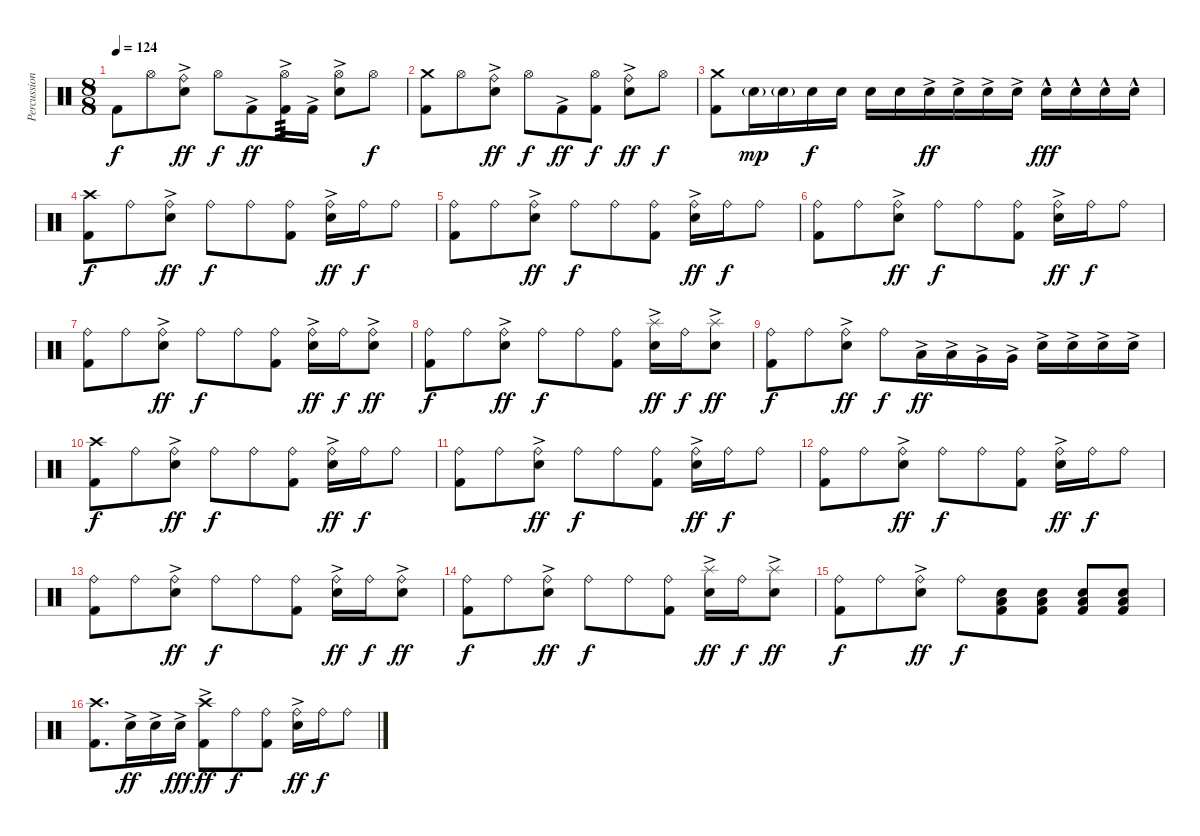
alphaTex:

\track ("Percussion" "Percussion") {instrument percussion}
\staff {score}
\articulation defaults
\ts (8 8)
\tempo 124
\clef neutral
\ks c "Kick (hit) 2".8{dy f} "Hi-Hat (open)".8
("Ride (bell)" "Electric Snare (hit)"{ac}).8{dy ff} "Hi-Hat (open)".8{dy f} "Kick (hit) 2"{ac}.8{dy ff} ("Hi-Hat (open)" "Kick (hit) 2"{ac}).16{tp 3} "Kick (hit) 2"{ac}.16 ("Hi-Hat (open)" "Electric Snare (hit)"{ac}).8 "Hi-Hat (open)".8{dy f} |
("Crash medium (hit)" "Kick (hit) 2").8 "Hi-Hat (open)".8 ("Ride (bell)" "Electric Snare (hit)"{ac}).8{dy ff} "Hi-Hat (open)".8{dy f} "Kick (hit) 2"{ac}.8{dy ff} ("Hi-Hat (open)" "Kick (hit) 2").8{dy f} ("Ride (bell)" "Electric Snare (hit)"{ac}).8{dy ff} "Hi-Hat (open)".8{dy f} |
("Crash medium (hit)" "Kick (hit) 2").8 "Electric Snare (hit)"{g}.16{dy mp} "Electric Snare (hit)"{g}.16 "Electric Snare (hit)".16{dy f} "Electric Snare (hit)".16 "Electric Snare (hit)".16 "Electric Snare (hit)".16 "Electric Snare (hit)"{ac}.16{dy ff} "Electric Snare (hit)"{ac}.16 "Electric Snare (hit)"{ac}.16 "Electric Snare (hit)"{ac}.16 "Electric Snare (hit)"{hac}.16{dy fff} "Electric Snare (hit)"{hac}.16 "Electric Snare (hit)"{hac}.16 "Electric Snare (hit)"{hac}.16 |
("Crash high (hit)" "Kick (hit) 2").8{dy f} "Ride (bell)".8 ("Ride (bell)" "Electric Snare (hit)"{ac}).8{dy ff} "Ride (bell)".8{dy f} "Ride (bell)".8 ("Ride (bell)" "Kick (hit) 2").8 ("Ride (bell)" "Electric Snare (hit)"{ac}).16{dy ff} "Ride (bell)".16{dy f} "Ride (bell)".8 |
("Ride (bell)" "Kick (hit) 2").8 "Ride (bell)".8 ("Ride (bell)" "Electric Snare (hit)"{ac}).8{dy ff} "Ride (bell)".8{dy f} "Ride (bell)".8 ("Ride (bell)" "Kick (hit) 2").8 ("Ride (bell)" "Electric Snare (hit)"{ac}).16{dy ff} "Ride (bell)".16{dy f} "Ride (bell)".8 |
("Ride (bell)" "Kick (hit) 2").8 "Ride (bell)".8 ("Ride (bell)" "Electric Snare (hit)"{ac}).8{dy ff} "Ride (bell)".8{dy f} "Ride (bell)".8 ("Ride (bell)" "Kick (hit) 2").8 ("Ride (bell)" "Electric Snare (hit)"{ac}).16{dy ff} "Ride (bell)".16{dy f} "Ride (bell)".8 |
("Ride (bell)" "Kick (hit) 2").8 "Ride (bell)".8 ("Ride (bell)" "Electric Snare (hit)"{ac}).8{dy ff} "Ride (bell)".8{dy f} "Ride (bell)".8 ("Ride (bell)" "Kick (hit) 2").8 ("Ride (bell)" "Electric Snare (hit)"{ac}).16{dy ff} "Ride (bell)".16{dy f} ("Ride (bell)" "Electric Snare (hit)"{ac}).8{dy ff} |
("Ride (bell)" "Kick (hit) 2").8{dy f} "Ride (bell)".8 ("Ride (bell)" "Electric Snare (hit)"{ac}).8{dy ff} "Ride (bell)".8{dy f} "Ride (bell)".8 ("Ride (bell)" "Kick (hit) 2").8 ("Splash (hit)" "Electric Snare (hit)"{ac}).16{dy ff} "Ride (bell)".16{dy f} ("Splash (hit)" "Electric Snare (hit)"{ac}).8{dy ff} |
("Ride (bell)" "Kick (hit) 2").8{dy f} "Ride (bell)".8 ("Ride (bell)" "Electric Snare (hit)"{ac}).8{dy ff} "Ride (bell)".8{dy f} "Low Tom (hit)"{ac}.16{dy ff} "Low Tom (hit)"{ac}.16 "Very Low Tom (hit)"{ac}.16 "Very Low Tom (hit)"{ac}.16 "Electric Snare (hit)"{ac}.16 "Electric Snare (hit)"{ac}.16 "Electric Snare (hit)"{ac}.16 "Electric Snare (hit)"{ac}.16 |
("Crash high (hit)" "Kick (hit) 2").8{dy f} "Ride (bell)".8 ("Ride (bell)" "Electric Snare (hit)"{ac}).8{dy ff} "Ride (bell)".8{dy f} "Ride (bell)".8 ("Ride (bell)" "Kick (hit) 2").8 ("Ride (bell)" "Electric Snare (hit)"{ac}).16{dy ff} "Ride (bell)".16{dy f} "Ride (bell)".8 |
("Ride (bell)" "Kick (hit) 2").8 "Ride (bell)".8 ("Ride (bell)" "Electric Snare (hit)"{ac}).8{dy ff} "Ride (bell)".8{dy f} "Ride (bell)".8 ("Ride (bell)" "Kick (hit) 2").8 ("Ride (bell)" "Electric Snare (hit)"{ac}).16{dy ff} "Ride (bell)".16{dy f} "Ride (bell)".8 |
("Ride (bell)" "Kick (hit) 2").8 "Ride (bell)".8 ("Ride (bell)" "Electric Snare (hit)"{ac}).8{dy ff} "Ride (bell)".8{dy f} "Ride (bell)".8 ("Ride (bell)" "Kick (hit) 2").8 ("Ride (bell)" "Electric Snare (hit)"{ac}).16{dy ff} "Ride (bell)".16{dy f} "Ride (bell)".8 |
("Ride (bell)" "Kick (hit) 2").8 "Ride (bell)".8 ("Ride (bell)" "Electric Snare (hit)"{ac}).8{dy ff} "Ride (bell)".8{dy f} "Ride (bell)".8 ("Ride (bell)" "Kick (hit) 2").8 ("Ride (bell)" "Electric Snare (hit)"{ac}).16{dy ff} "Ride (bell)".16{dy f} ("Ride (bell)" "Electric Snare (hit)"{ac}).8{dy ff} |
("Ride (bell)" "Kick (hit) 2").8{dy f} "Ride (bell)".8 ("Ride (bell)" "Electric Snare (hit)"{ac}).8{dy ff} "Ride (bell)".8{dy f} "Ride (bell)".8 ("Ride (bell)" "Kick (hit) 2").8 ("Splash (hit)" "Electric Snare (hit)"{ac}).16{dy ff} "Ride (bell)".16{dy f} ("Splash (hit)" "Electric Snare (hit)"{ac}).8{dy ff} |
("Ride (bell)" "Kick (hit) 2").8{dy f} "Ride (bell)".8 ("Ride (bell)" "Electric Snare (hit)"{ac}).8{dy ff} "Ride (bell)".8{dy f} ("Low Floor Tom (hit)" "Electric Snare (hit)" "Kick (hit) 2").8 ("Low Floor Tom (hit)" "Electric Snare (hit)" "Kick (hit) 2").8 ("Low Floor Tom (hit)" "Electric Snare (hit)" "Kick (hit) 2").8 ("Low Floor Tom (hit)" "Electric Snare (hit)" "Kick (hit) 2").8 |
("Crash high (hit)" "Kick (hit) 2").8{d} "Electric Snare (hit)"{ac}.16{dy ff} "Electric Snare (hit)"{ac}.16 "Electric Snare (hit)"{ac}.16{dy fff} ("Crash high (hit)"{ac} "Kick (hit) 2"{ac}).8{dy ff} "Ride (bell)".8{dy f} ("Ride (bell)" "Kick (hit) 2").8 ("Ride (bell)" "Electric Snare (hit)"{ac}).16{dy ff} "Ride (bell)".16{dy f} "Ride (bell)".8
